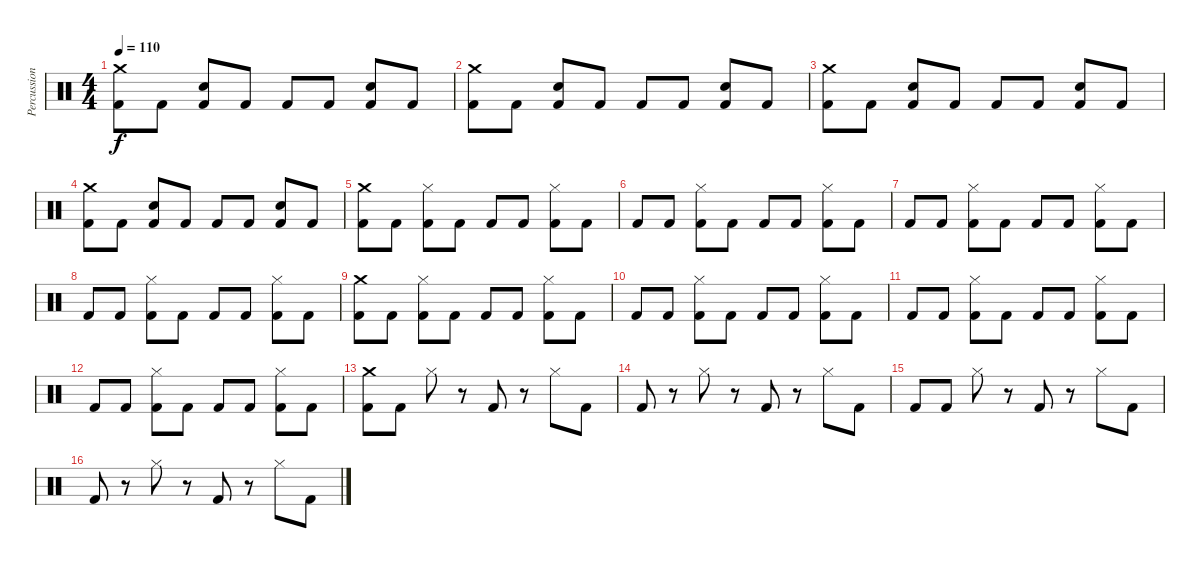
\track ("Percussion" "Percussion") {instrument percussion}
\staff {score}
\articulation defaults
\ts (4 4)
\tempo 110
\clef neutral
\ks c
("Crash medium (hit)" "Kick (hit) 2").8{dy f} "Kick (hit) 2".8 ("Snare (hit) 2" "Kick (hit) 2").8 "Kick (hit) 2".8 "Kick (hit) 2".8 "Kick (hit) 2".8 ("Snare (hit) 2" "Kick (hit) 2").8 "Kick (hit) 2".8 |
("Crash medium (hit)" "Kick (hit) 2").8 "Kick (hit) 2".8 ("Snare (hit) 2" "Kick (hit) 2").8 "Kick (hit) 2".8 "Kick (hit) 2".8 "Kick (hit) 2".8 ("Snare (hit) 2" "Kick (hit) 2").8 "Kick (hit) 2".8 |
("Crash medium (hit)" "Kick (hit) 2").8 "Kick (hit) 2".8 ("Snare (hit) 2" "Kick (hit) 2").8 "Kick (hit) 2".8 "Kick (hit) 2".8 "Kick (hit) 2".8 ("Snare (hit) 2" "Kick (hit) 2").8 "Kick (hit) 2".8 |
("Crash medium (hit)" "Kick (hit) 2").8 "Kick (hit) 2".8 ("Snare (hit) 2" "Kick (hit) 2").8 "Kick (hit) 2".8 "Kick (hit) 2".8 "Kick (hit) 2".8 ("Snare (hit) 2" "Kick (hit) 2").8 "Kick (hit) 2".8 |
("Crash medium (hit)" "Kick (hit) 2").8 "Kick (hit) 2".8 ("Hi-Hat (closed)" "Kick (hit) 2").8 "Kick (hit) 2".8 "Kick (hit) 2".8 "Kick (hit) 2".8 ("Hi-Hat (closed)" "Kick (hit) 2").8 "Kick (hit) 2".8 |
"Kick (hit) 2".8 "Kick (hit) 2".8 ("Hi-Hat (closed)" "Kick (hit) 2").8 "Kick (hit) 2".8 "Kick (hit) 2".8 "Kick (hit) 2".8 ("Hi-Hat (closed)" "Kick (hit) 2").8 "Kick (hit) 2".8 |
"Kick (hit) 2".8 "Kick (hit) 2".8 ("Hi-Hat (closed)" "Kick (hit) 2").8 "Kick (hit) 2".8 "Kick (hit) 2".8 "Kick (hit) 2".8 ("Hi-Hat (closed)" "Kick (hit) 2").8 "Kick (hit) 2".8 |
"Kick (hit) 2".8 "Kick (hit) 2".8 ("Hi-Hat (closed)" "Kick (hit) 2").8 "Kick (hit) 2".8 "Kick (hit) 2".8 "Kick (hit) 2".8 ("Hi-Hat (closed)" "Kick (hit) 2").8 "Kick (hit) 2".8 |
("Crash medium (hit)" "Kick (hit) 2").8 "Kick (hit) 2".8 ("Hi-Hat (closed)" "Kick (hit) 2").8 "Kick (hit) 2".8 "Kick (hit) 2".8 "Kick (hit) 2".8 ("Hi-Hat (closed)" "Kick (hit) 2").8 "Kick (hit) 2".8 |
"Kick (hit) 2".8 "Kick (hit) 2".8 ("Hi-Hat (closed)" "Kick (hit) 2").8 "Kick (hit) 2".8 "Kick (hit) 2".8 "Kick (hit) 2".8 ("Hi-Hat (closed)" "Kick (hit) 2").8 "Kick (hit) 2".8 |
"Kick (hit) 2".8 "Kick (hit) 2".8 ("Hi-Hat (closed)" "Kick (hit) 2").8 "Kick (hit) 2".8 "Kick (hit) 2".8 "Kick (hit) 2".8 ("Hi-Hat (closed)" "Kick (hit) 2").8 "Kick (hit) 2".8 |
"Kick (hit) 2".8 "Kick (hit) 2".8 ("Hi-Hat (closed)" "Kick (hit) 2").8 "Kick (hit) 2".8 "Kick (hit) 2".8 "Kick (hit) 2".8 ("Hi-Hat (closed)" "Kick (hit) 2").8 "Kick (hit) 2".8 |
("Crash medium (hit)" "Kick (hit) 2").8 "Kick (hit) 2".8 "Hi-Hat (closed)".8 r.8 "Kick (hit) 2".8 r.8 "Hi-Hat (closed)".8 "Kick (hit) 2".8 |
"Kick (hit) 2".8 r.8 "Hi-Hat (closed)".8 r.8 "Kick (hit) 2".8 r.8 "Hi-Hat (closed)".8 "Kick (hit) 2".8 |
"Kick (hit) 2".8 "Kick (hit) 2".8 "Hi-Hat (closed)".8 r.8 "Kick (hit) 2".8 r.8 "Hi-Hat (closed)".8 "Kick (hit) 2".8 |
"Kick (hit) 2".8 r.8 "Hi-Hat (closed)".8 r.8 "Kick (hit) 2".8 r.8 "Hi-Hat (closed)".8 "Kick (hit) 2".8
